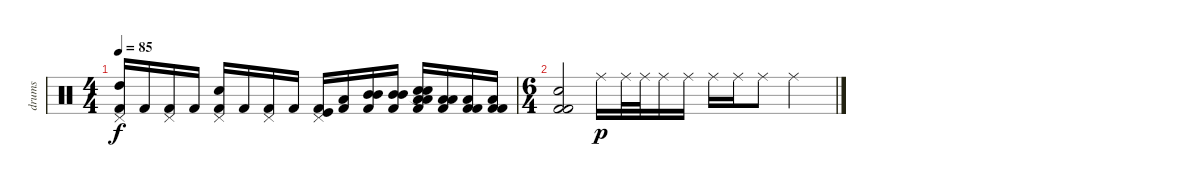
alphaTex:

\track ("drums" "drums") {instrument percussion}
\staff {score}
\articulation defaults
\ts (4 4)
\tempo 85
\clef neutral
\ks c
("Pedal Hi-Hat (hit)" "High Tom (hit)" "Kick (hit) 2").16{dy f} "Kick (hit) 2".16 ("Pedal Hi-Hat (hit)" "Kick (hit) 2").16 "Kick (hit) 2".16 ("Snare (hit) 2" "Pedal Hi-Hat (hit)" "Kick (hit) 2").16 "Kick (hit) 2".16 ("Pedal Hi-Hat (hit)" "Kick (hit) 2").16 "Kick (hit) 2".16 ("Pedal Hi-Hat (hit)" "Kick (hit)" "Kick (hit) 2").16 ("Low Tom (hit)" "Kick (hit) 2").16 ("Mid Tom (hit)" "Mid Tom (hit)" "Kick (hit) 2").16 ("Mid Tom (hit)" "Mid Tom (hit)" "Kick (hit) 2").16 ("Snare (hit) 2"{t} "Snare (hit)"{t} "Low Tom (hit)" "Low Tom (hit)" "Kick (hit) 2").16 ("Low Tom (hit)" "Low Tom (hit)" "Kick (hit) 2").16 ("Low Floor Tom (hit)" "Kick (hit) 2" "Kick (hit) 2").16 ("Low Floor Tom (hit)" "Kick (hit) 2" "Kick (hit) 2").16 |
\ts (6 4)
("Snare (hit) 2" "Kick (hit) 2" "Kick (hit) 2").2 "Ride (middle)".16{dy p} "Ride (middle)".32 "Ride (middle)".32 "Ride (middle)".16 "Ride (middle)".16 "Ride (middle)".16 "Ride (middle)".16 "Ride (middle)".8 "Ride (middle)".2
